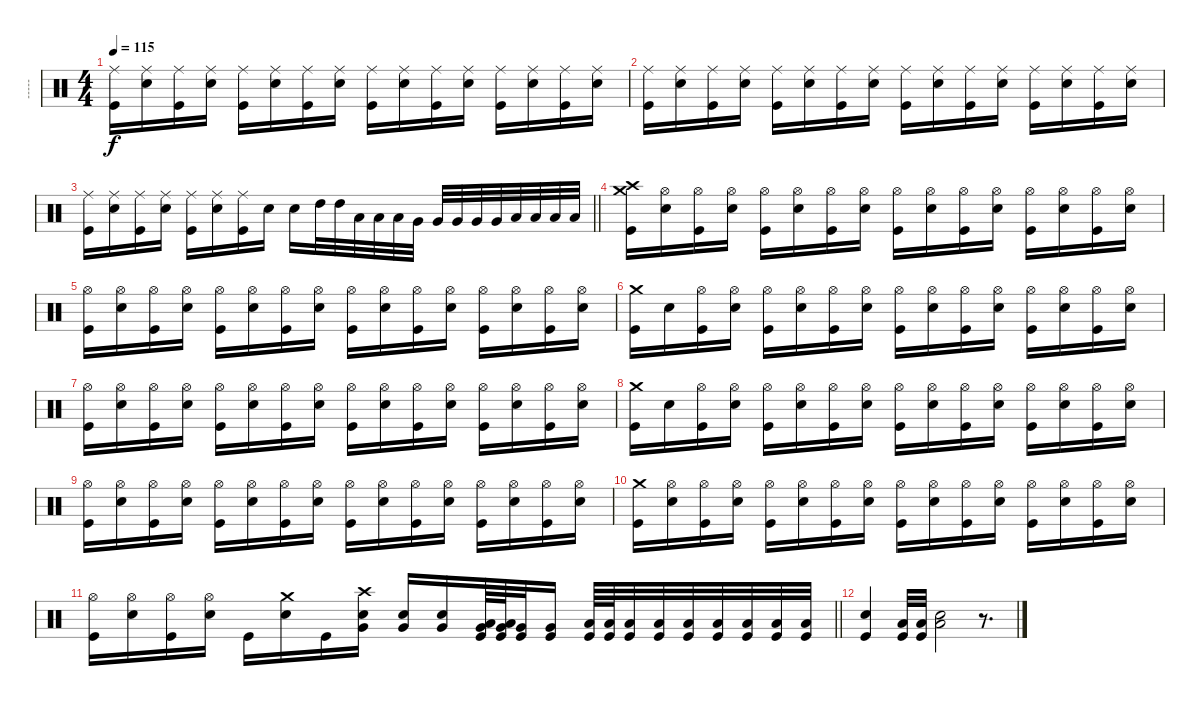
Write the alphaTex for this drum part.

\track ("-----" "-----") {instrument percussion}
\staff {score}
\articulation defaults
\ts (4 4)
\tempo 115
\clef neutral
\ks c
("Ride (middle)" "Kick (hit)").16{dy f} ("Ride (middle)" "Electric Snare (hit)").16 ("Ride (middle)" "Kick (hit)").16 ("Ride (middle)" "Electric Snare (hit)").16 ("Ride (middle)" "Kick (hit)").16 ("Ride (middle)" "Electric Snare (hit)").16 ("Ride (middle)" "Kick (hit)").16 ("Ride (middle)" "Electric Snare (hit)").16 ("Ride (middle)" "Kick (hit)").16 ("Ride (middle)" "Electric Snare (hit)").16 ("Ride (middle)" "Kick (hit)").16 ("Ride (middle)" "Electric Snare (hit)").16 ("Ride (middle)" "Kick (hit)").16 ("Ride (middle)" "Electric Snare (hit)").16 ("Ride (middle)" "Kick (hit)").16 ("Ride (middle)" "Electric Snare (hit)").16 |
("Ride (middle)" "Kick (hit)").16 ("Ride (middle)" "Electric Snare (hit)").16 ("Ride (middle)" "Kick (hit)").16 ("Ride (middle)" "Electric Snare (hit)").16 ("Ride (middle)" "Kick (hit)").16 ("Ride (middle)" "Electric Snare (hit)").16 ("Ride (middle)" "Kick (hit)").16 ("Ride (middle)" "Electric Snare (hit)").16 ("Ride (middle)" "Kick (hit)").16 ("Ride (middle)" "Electric Snare (hit)").16 ("Ride (middle)" "Kick (hit)").16 ("Ride (middle)" "Electric Snare (hit)").16 ("Ride (middle)" "Kick (hit)").16 ("Ride (middle)" "Electric Snare (hit)").16 ("Ride (middle)" "Kick (hit)").16 ("Ride (middle)" "Electric Snare (hit)").16 |
\barLineRight lightlight
("Ride (middle)" "Kick (hit)").16 ("Ride (middle)" "Electric Snare (hit)").16 ("Ride (middle)" "Kick (hit)").16 ("Ride (middle)" "Electric Snare (hit)").16 ("Ride (middle)" "Kick (hit)").16 ("Ride (middle)" "Electric Snare (hit)").16 ("Ride (middle)" "Kick (hit)").16 "Electric Snare (hit)".16 "Electric Snare (hit)".16 "High Tom (hit)".32 "High Tom (hit)".32 "Low Tom (hit)".32 "Low Tom (hit)".32 "Low Tom (hit)".32 "Very Low Tom (hit)".32 "Very Low Tom (hit)".32 "Very Low Tom (hit)".32 "Very Low Tom (hit)".32 "Very Low Tom (hit)".32 "Low Floor Tom (hit)".32 "Low Floor Tom (hit)".32 "Low Floor Tom (hit)".32 "Low Floor Tom (hit)".32 |
\section ("" "")
("Crash medium (hit)" "Crash high (hit)" "Kick (hit)").16 ("Hi-Hat (open)" "Electric Snare (hit)").16 ("Hi-Hat (open)" "Kick (hit)").16 ("Hi-Hat (open)" "Electric Snare (hit)").16 ("Hi-Hat (open)" "Kick (hit)").16 ("Hi-Hat (open)" "Electric Snare (hit)").16 ("Hi-Hat (open)" "Kick (hit)").16 ("Hi-Hat (open)" "Electric Snare (hit)").16 ("Hi-Hat (open)" "Kick (hit)").16 ("Hi-Hat (open)" "Electric Snare (hit)").16 ("Hi-Hat (open)" "Kick (hit)").16 ("Hi-Hat (open)" "Electric Snare (hit)").16 ("Hi-Hat (open)" "Kick (hit)").16 ("Hi-Hat (open)" "Electric Snare (hit)").16 ("Hi-Hat (open)" "Kick (hit)").16 ("Hi-Hat (open)" "Electric Snare (hit)").16 |
("Hi-Hat (open)" "Kick (hit)").16 ("Hi-Hat (open)" "Electric Snare (hit)").16 ("Hi-Hat (open)" "Kick (hit)").16 ("Hi-Hat (open)" "Electric Snare (hit)").16 ("Hi-Hat (open)" "Kick (hit)").16 ("Hi-Hat (open)" "Electric Snare (hit)").16 ("Hi-Hat (open)" "Kick (hit)").16 ("Hi-Hat (open)" "Electric Snare (hit)").16 ("Hi-Hat (open)" "Kick (hit)").16 ("Hi-Hat (open)" "Electric Snare (hit)").16 ("Hi-Hat (open)" "Kick (hit)").16 ("Hi-Hat (open)" "Electric Snare (hit)").16 ("Hi-Hat (open)" "Kick (hit)").16 ("Hi-Hat (open)" "Electric Snare (hit)").16 ("Hi-Hat (open)" "Kick (hit)").16 ("Hi-Hat (open)" "Electric Snare (hit)").16 |
("Crash medium (hit)" "Kick (hit)").16 "Electric Snare (hit)".16 ("Hi-Hat (open)" "Kick (hit)").16 ("Hi-Hat (open)" "Electric Snare (hit)").16 ("Hi-Hat (open)" "Kick (hit)").16 ("Hi-Hat (open)" "Electric Snare (hit)").16 ("Hi-Hat (open)" "Kick (hit)").16 ("Hi-Hat (open)" "Electric Snare (hit)").16 ("Hi-Hat (open)" "Kick (hit)").16 ("Hi-Hat (open)" "Electric Snare (hit)").16 ("Hi-Hat (open)" "Kick (hit)").16 ("Hi-Hat (open)" "Electric Snare (hit)").16 ("Hi-Hat (open)" "Kick (hit)").16 ("Hi-Hat (open)" "Electric Snare (hit)").16 ("Hi-Hat (open)" "Kick (hit)").16 ("Hi-Hat (open)" "Electric Snare (hit)").16 |
("Hi-Hat (open)" "Kick (hit)").16 ("Hi-Hat (open)" "Electric Snare (hit)").16 ("Hi-Hat (open)" "Kick (hit)").16 ("Hi-Hat (open)" "Electric Snare (hit)").16 ("Hi-Hat (open)" "Kick (hit)").16 ("Hi-Hat (open)" "Electric Snare (hit)").16 ("Hi-Hat (open)" "Kick (hit)").16 ("Hi-Hat (open)" "Electric Snare (hit)").16 ("Hi-Hat (open)" "Kick (hit)").16 ("Hi-Hat (open)" "Electric Snare (hit)").16 ("Hi-Hat (open)" "Kick (hit)").16 ("Hi-Hat (open)" "Electric Snare (hit)").16 ("Hi-Hat (open)" "Kick (hit)").16 ("Hi-Hat (open)" "Electric Snare (hit)").16 ("Hi-Hat (open)" "Kick (hit)").16 ("Hi-Hat (open)" "Electric Snare (hit)").16 |
("Crash medium (hit)" "Kick (hit)").16 "Electric Snare (hit)".16 ("Hi-Hat (open)" "Kick (hit)").16 ("Hi-Hat (open)" "Electric Snare (hit)").16 ("Hi-Hat (open)" "Kick (hit)").16 ("Hi-Hat (open)" "Electric Snare (hit)").16 ("Hi-Hat (open)" "Kick (hit)").16 ("Hi-Hat (open)" "Electric Snare (hit)").16 ("Hi-Hat (open)" "Kick (hit)").16 ("Hi-Hat (open)" "Electric Snare (hit)").16 ("Hi-Hat (open)" "Kick (hit)").16 ("Hi-Hat (open)" "Electric Snare (hit)").16 ("Hi-Hat (open)" "Kick (hit)").16 ("Hi-Hat (open)" "Electric Snare (hit)").16 ("Hi-Hat (open)" "Kick (hit)").16 ("Hi-Hat (open)" "Electric Snare (hit)").16 |
("Hi-Hat (open)" "Kick (hit)").16 ("Hi-Hat (open)" "Electric Snare (hit)").16 ("Hi-Hat (open)" "Kick (hit)").16 ("Hi-Hat (open)" "Electric Snare (hit)").16 ("Hi-Hat (open)" "Kick (hit)").16 ("Hi-Hat (open)" "Electric Snare (hit)").16 ("Hi-Hat (open)" "Kick (hit)").16 ("Hi-Hat (open)" "Electric Snare (hit)").16 ("Hi-Hat (open)" "Kick (hit)").16 ("Hi-Hat (open)" "Electric Snare (hit)").16 ("Hi-Hat (open)" "Kick (hit)").16 ("Hi-Hat (open)" "Electric Snare (hit)").16 ("Hi-Hat (open)" "Kick (hit)").16 ("Hi-Hat (open)" "Electric Snare (hit)").16 ("Hi-Hat (open)" "Kick (hit)").16 ("Hi-Hat (open)" "Electric Snare (hit)").16 |
("Crash medium (hit)" "Kick (hit)").16 ("Hi-Hat (open)" "Electric Snare (hit)").16 ("Hi-Hat (open)" "Kick (hit)").16 ("Hi-Hat (open)" "Electric Snare (hit)").16 ("Hi-Hat (open)" "Kick (hit)").16 ("Hi-Hat (open)" "Electric Snare (hit)").16 ("Hi-Hat (open)" "Kick (hit)").16 ("Hi-Hat (open)" "Electric Snare (hit)").16 ("Hi-Hat (open)" "Kick (hit)").16 ("Hi-Hat (open)" "Electric Snare (hit)").16 ("Hi-Hat (open)" "Kick (hit)").16 ("Hi-Hat (open)" "Electric Snare (hit)").16 ("Hi-Hat (open)" "Kick (hit)").16 ("Hi-Hat (open)" "Electric Snare (hit)").16 ("Hi-Hat (open)" "Kick (hit)").16 ("Hi-Hat (open)" "Electric Snare (hit)").16 |
\barLineRight lightlight
("Hi-Hat (open)" "Kick (hit)").16 ("Hi-Hat (open)" "Electric Snare (hit)").16 ("Hi-Hat (open)" "Kick (hit)").16 ("Hi-Hat (open)" "Electric Snare (hit)").16 "Kick (hit)".16 ("Crash medium (hit)" "Electric Snare (hit)").16 "Kick (hit)".16 ("Crash high (hit)" "Very Low Tom (hit)" "Electric Snare (hit)").16 ("Very Low Tom (hit)" "Electric Snare (hit)").16 ("Very Low Tom (hit)" "Electric Snare (hit)").16 ("Very Low Tom (hit)" "Low Floor Tom (hit)" "Kick (hit)").64 ("Very Low Tom (hit)" "Low Floor Tom (hit)" "Kick (hit)").64 ("Very Low Tom (hit)" "Kick (hit)").32 ("Very Low Tom (hit)" "Kick (hit)").16 ("Low Floor Tom (hit)" "Kick (hit)").64 ("Low Floor Tom (hit)" "Kick (hit)").64 ("Low Floor Tom (hit)" "Kick (hit)").32 ("Low Floor Tom (hit)" "Kick (hit)").32 ("Low Floor Tom (hit)" "Kick (hit)").32 ("Low Floor Tom (hit)" "Kick (hit)").32 ("Low Floor Tom (hit)" "Kick (hit)").32 ("Low Floor Tom (hit)" "Kick (hit)").32 ("Low Floor Tom (hit)" "Kick (hit)").32 |
("Electric Snare (hit)" "Kick (hit)").4 ("Low Tom (hit)" "Kick (hit)").32 ("Low Tom (hit)" "Kick (hit)").32 ("Low Tom (hit)" "Electric Snare (hit)").2 r.8{d}
